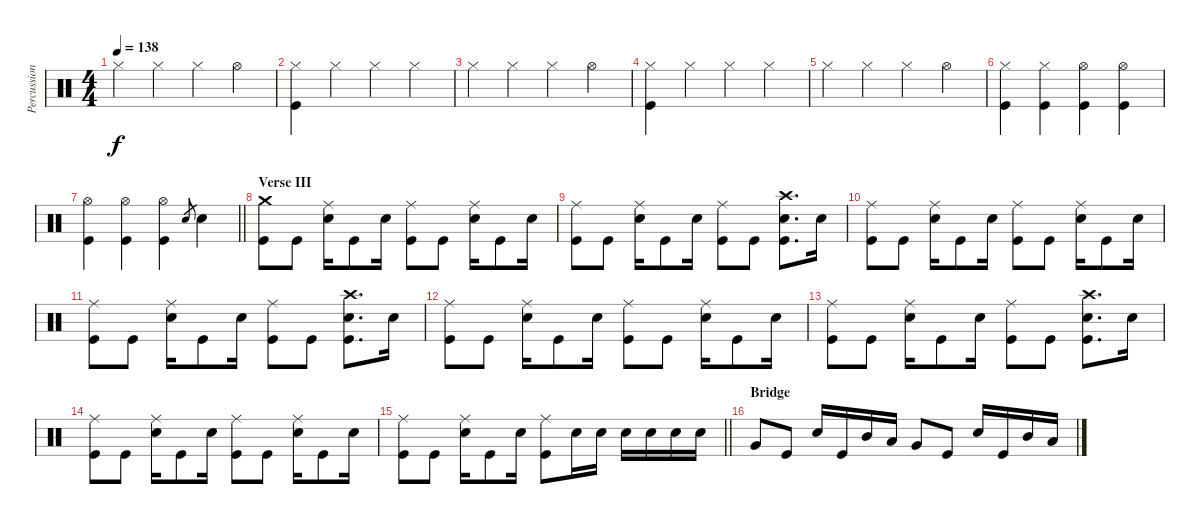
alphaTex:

\track ("Percussion" "Percussion") {instrument percussion}
\staff {score}
\articulation defaults
\ts (4 4)
\tempo 138
\clef neutral
\ks c "Hi-Hat (closed)".4{dy f} "Hi-Hat (closed)".4 "Hi-Hat (closed)".4 "Hi-Hat (open)".4
|
("Hi-Hat (closed)" "Kick (hit)").4 "Hi-Hat (closed)".4 "Hi-Hat (closed)".4 "Hi-Hat (closed)".4 |
"Hi-Hat (closed)".4 "Hi-Hat (closed)".4 "Hi-Hat (closed)".4 "Hi-Hat (open)".4 |
("Hi-Hat (closed)" "Kick (hit)").4 "Hi-Hat (closed)".4 "Hi-Hat (closed)".4 "Hi-Hat (closed)".4 |
"Hi-Hat (closed)".4 "Hi-Hat (closed)".4 "Hi-Hat (closed)".4 "Hi-Hat (open)".4 |
("Hi-Hat (closed)" "Kick (hit)").4 ("Hi-Hat (closed)" "Kick (hit)").4 ("Hi-Hat (open)" "Kick (hit)").4 ("Hi-Hat (open)" "Kick (hit)").4 |
\barLineRight lightlight
("Hi-Hat (open)" "Kick (hit)").4 ("Hi-Hat (open)" "Kick (hit)").4 ("Hi-Hat (open)" "Kick (hit)").4 "Electric Snare (hit)".8{gr} "Electric Snare (hit)".4 |
\section ("" "Verse III")
("Crash medium (hit)" "Kick (hit)").8 "Kick (hit)".8 ("Ride (middle)" "Electric Snare (hit)").16 "Kick (hit)".8 "Electric Snare (hit)".16 ("Ride (middle)" "Kick (hit)").8 "Kick (hit)".8 ("Ride (middle)" "Electric Snare (hit)").16 "Kick (hit)".8 "Electric Snare (hit)".16 |
("Ride (middle)" "Kick (hit)").8 "Kick (hit)".8 ("Ride (middle)" "Electric Snare (hit)").16 "Kick (hit)".8 "Electric Snare (hit)".16 ("Ride (middle)" "Kick (hit)").8 "Kick (hit)".8 ("Crash high (hit)" "Electric Snare (hit)" "Kick (hit)").8{d} "Electric Snare (hit)".16 |
("Ride (middle)" "Kick (hit)").8 "Kick (hit)".8 ("Ride (middle)" "Electric Snare (hit)").16 "Kick (hit)".8 "Electric Snare (hit)".16 ("Ride (middle)" "Kick (hit)").8 "Kick (hit)".8 ("Ride (middle)" "Electric Snare (hit)").16 "Kick (hit)".8 "Electric Snare (hit)".16 |
("Ride (middle)" "Kick (hit)").8 "Kick (hit)".8 ("Ride (middle)" "Electric Snare (hit)").16 "Kick (hit)".8 "Electric Snare (hit)".16 ("Ride (middle)" "Kick (hit)").8 "Kick (hit)".8 ("Crash high (hit)" "Electric Snare (hit)" "Kick (hit)").8{d} "Electric Snare (hit)".16 |
("Ride (middle)" "Kick (hit)").8 "Kick (hit)".8 ("Ride (middle)" "Electric Snare (hit)").16 "Kick (hit)".8 "Electric Snare (hit)".16 ("Ride (middle)" "Kick (hit)").8 "Kick (hit)".8 ("Ride (middle)" "Electric Snare (hit)").16 "Kick (hit)".8 "Electric Snare (hit)".16 |
("Ride (middle)" "Kick (hit)").8 "Kick (hit)".8 ("Ride (middle)" "Electric Snare (hit)").16 "Kick (hit)".8 "Electric Snare (hit)".16 ("Ride (middle)" "Kick (hit)").8 "Kick (hit)".8 ("Crash high (hit)" "Electric Snare (hit)" "Kick (hit)").8{d} "Electric Snare (hit)".16 |
("Ride (middle)" "Kick (hit)").8 "Kick (hit)".8 ("Ride (middle)" "Electric Snare (hit)").16 "Kick (hit)".8 "Electric Snare (hit)".16 ("Ride (middle)" "Kick (hit)").8 "Kick (hit)".8 ("Ride (middle)" "Electric Snare (hit)").16 "Kick (hit)".8 "Electric Snare (hit)".16 |
\barLineRight lightlight
("Ride (middle)" "Kick (hit)").8 "Kick (hit)".8 ("Ride (middle)" "Electric Snare (hit)").16 "Kick (hit)".8 "Electric Snare (hit)".16 ("Ride (middle)" "Kick (hit)").8 "Electric Snare (hit)".16 "Electric Snare (hit)".16 "Electric Snare (hit)".16 "Electric Snare (hit)".16 "Electric Snare (hit)".16 "Electric Snare (hit)".16 |
\section ("" "Bridge")
"Very Low Tom (hit)".8 "Kick (hit)".8 "Electric Snare (hit)".16 "Kick (hit)".16 "Mid Tom (hit)".16 "Low Tom (hit)".16 "Very Low Tom (hit)".8 "Kick (hit)".8 "Electric Snare (hit)".16 "Kick (hit)".16 "Mid Tom (hit)".16 "Low Tom (hit)".16
